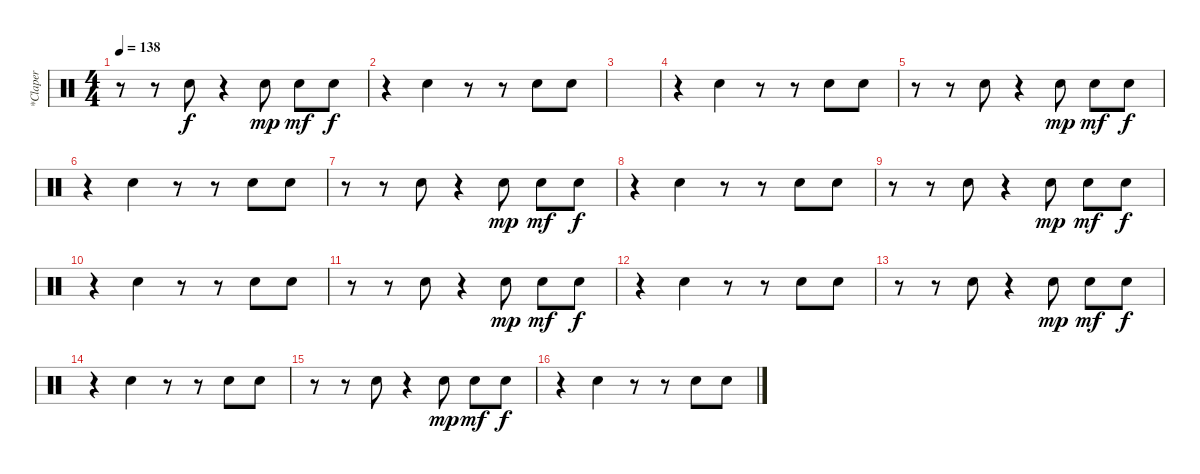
\track ("*Claper" "*Claper") {instrument percussion}
\staff {score}
\articulation defaults
\ts (4 4)
\tempo 138
\clef neutral
\ks c
r.8{dy f} r.8 "Hand Clap (hit)".8 r.4 "Hand Clap (hit)".8{dy mp} "Hand Clap (hit)".8{dy mf} "Hand Clap (hit)".8{dy f} |
r.4 "Hand Clap (hit)".4 r.8 r.8 "Hand Clap (hit)".8 "Hand Clap (hit)".8 |
|
r.4 "Hand Clap (hit)".4 r.8 r.8 "Hand Clap (hit)".8 "Hand Clap (hit)".8 |
r.8 r.8 "Hand Clap (hit)".8 r.4 "Hand Clap (hit)".8{dy mp} "Hand Clap (hit)".8{dy mf} "Hand Clap (hit)".8{dy f} |
r.4 "Hand Clap (hit)".4 r.8 r.8 "Hand Clap (hit)".8 "Hand Clap (hit)".8 |
r.8 r.8 "Hand Clap (hit)".8 r.4 "Hand Clap (hit)".8{dy mp} "Hand Clap (hit)".8{dy mf} "Hand Clap (hit)".8{dy f} |
r.4 "Hand Clap (hit)".4 r.8 r.8 "Hand Clap (hit)".8 "Hand Clap (hit)".8 |
r.8 r.8 "Hand Clap (hit)".8 r.4 "Hand Clap (hit)".8{dy mp} "Hand Clap (hit)".8{dy mf} "Hand Clap (hit)".8{dy f} |
r.4 "Hand Clap (hit)".4 r.8 r.8 "Hand Clap (hit)".8 "Hand Clap (hit)".8 |
r.8 r.8 "Hand Clap (hit)".8 r.4 "Hand Clap (hit)".8{dy mp} "Hand Clap (hit)".8{dy mf} "Hand Clap (hit)".8{dy f} |
r.4 "Hand Clap (hit)".4 r.8 r.8 "Hand Clap (hit)".8 "Hand Clap (hit)".8 |
r.8 r.8 "Hand Clap (hit)".8 r.4 "Hand Clap (hit)".8{dy mp} "Hand Clap (hit)".8{dy mf} "Hand Clap (hit)".8{dy f} |
r.4 "Hand Clap (hit)".4 r.8 r.8 "Hand Clap (hit)".8 "Hand Clap (hit)".8 |
r.8 r.8 "Hand Clap (hit)".8 r.4 "Hand Clap (hit)".8{dy mp} "Hand Clap (hit)".8{dy mf} "Hand Clap (hit)".8{dy f} |
r.4 "Hand Clap (hit)".4 r.8 r.8 "Hand Clap (hit)".8 "Hand Clap (hit)".8
